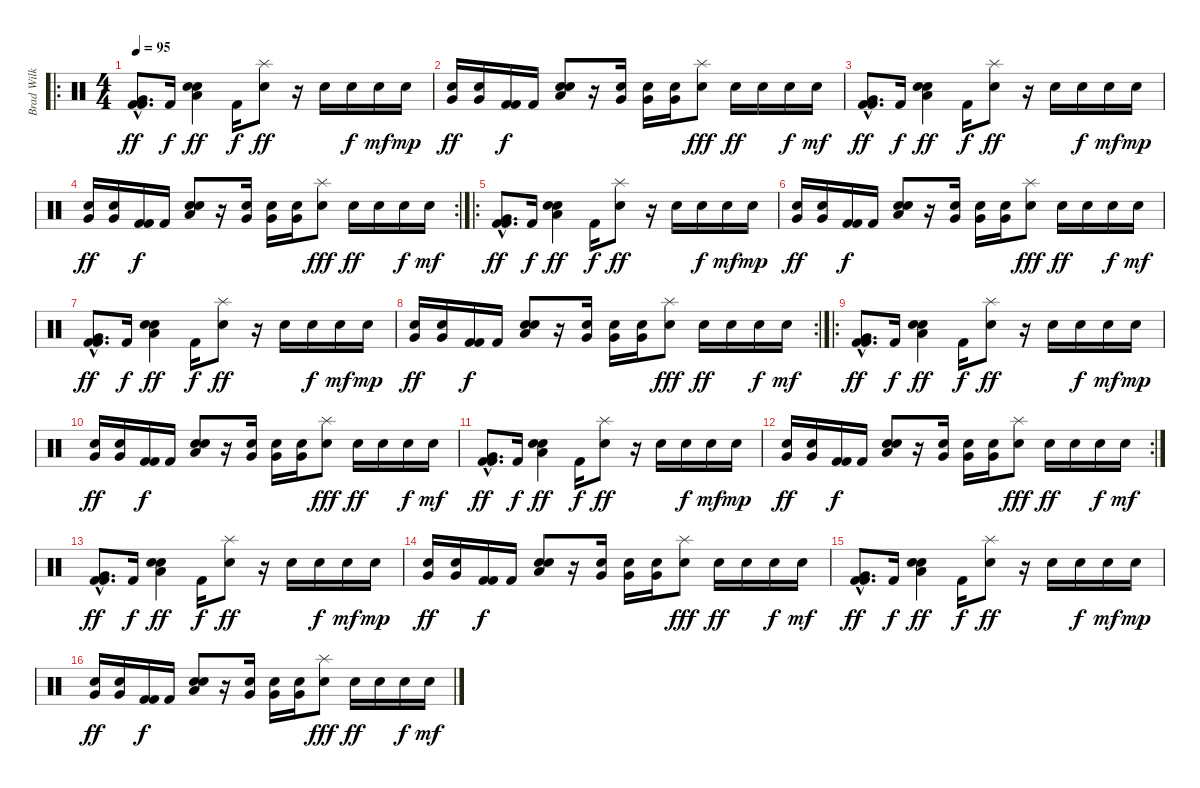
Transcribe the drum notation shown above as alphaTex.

\track ("Brad Wilk" "Brad Wilk") {instrument percussion}
\staff {score}
\articulation defaults
\ro
\ts (4 4)
\tempo 95
\clef neutral
\ks c
("Very Low Tom (hit)"{hac} "Kick (hit) 2"{hac} "Kick (hit) 2"{hac}).8{d dy ff} "Kick (hit) 2".16{dy f} ("Low Tom (hit)" "Snare (hit) 2" "Snare (hit) 2").4{dy ff} "Kick (hit) 2".16{dy f} ("Splash (hit)" "Snare (hit) 2").8{dy ff} r.16 "Snare (hit) 2".16 "Snare (hit) 2".16{dy f} "Snare (hit) 2".16{dy mf} "Snare (hit) 2".16{dy mp} |
("Very Low Tom (hit)" "Snare (hit) 2").16{dy ff} ("Very Low Tom (hit)" "Snare (hit) 2").16 ("Kick (hit) 2" "Kick (hit) 2").16{dy f} "Kick (hit) 2".16 ("Low Tom (hit)" "Snare (hit) 2" "Snare (hit) 2").8 r.16 ("Very Low Tom (hit)" "Snare (hit) 2").16 ("Very Low Tom (hit)" "Snare (hit) 2").16 ("Very Low Tom (hit)" "Snare (hit) 2").16 ("Splash (hit)" "Snare (hit) 2").8{dy fff} "Snare (hit) 2".16{dy ff} "Snare (hit) 2".16 "Snare (hit) 2".16{dy f} "Snare (hit) 2".16{dy mf} |
("Very Low Tom (hit)"{hac} "Kick (hit) 2"{hac} "Kick (hit) 2"{hac}).8{d dy ff} "Kick (hit) 2".16{dy f} ("Low Tom (hit)" "Snare (hit) 2" "Snare (hit) 2").4{dy ff} "Kick (hit) 2".16{dy f} ("Splash (hit)" "Snare (hit) 2").8{dy ff} r.16 "Snare (hit) 2".16 "Snare (hit) 2".16{dy f} "Snare (hit) 2".16{dy mf} "Snare (hit) 2".16{dy mp} |
\rc 2
("Very Low Tom (hit)" "Snare (hit) 2").16{dy ff} ("Very Low Tom (hit)" "Snare (hit) 2").16 ("Kick (hit) 2" "Kick (hit) 2").16{dy f} "Kick (hit) 2".16 ("Low Tom (hit)" "Snare (hit) 2" "Snare (hit) 2").8 r.16 ("Very Low Tom (hit)" "Snare (hit) 2").16 ("Very Low Tom (hit)" "Snare (hit) 2").16 ("Very Low Tom (hit)" "Snare (hit) 2").16 ("Splash (hit)" "Snare (hit) 2").8{dy fff} "Snare (hit) 2".16{dy ff} "Snare (hit) 2".16 "Snare (hit) 2".16{dy f} "Snare (hit) 2".16{dy mf} |
\ro
("Very Low Tom (hit)"{hac} "Kick (hit) 2"{hac} "Kick (hit) 2"{hac}).8{d dy ff} "Kick (hit) 2".16{dy f} ("Low Tom (hit)" "Snare (hit) 2" "Snare (hit) 2").4{dy ff} "Kick (hit) 2".16{dy f} ("Splash (hit)" "Snare (hit) 2").8{dy ff} r.16 "Snare (hit) 2".16 "Snare (hit) 2".16{dy f} "Snare (hit) 2".16{dy mf} "Snare (hit) 2".16{dy mp} |
("Very Low Tom (hit)" "Snare (hit) 2").16{dy ff} ("Very Low Tom (hit)" "Snare (hit) 2").16 ("Kick (hit) 2" "Kick (hit) 2").16{dy f} "Kick (hit) 2".16 ("Low Tom (hit)" "Snare (hit) 2" "Snare (hit) 2").8 r.16 ("Very Low Tom (hit)" "Snare (hit) 2").16 ("Very Low Tom (hit)" "Snare (hit) 2").16 ("Very Low Tom (hit)" "Snare (hit) 2").16 ("Splash (hit)" "Snare (hit) 2").8{dy fff} "Snare (hit) 2".16{dy ff} "Snare (hit) 2".16 "Snare (hit) 2".16{dy f} "Snare (hit) 2".16{dy mf} |
("Very Low Tom (hit)"{hac} "Kick (hit) 2"{hac} "Kick (hit) 2"{hac}).8{d dy ff} "Kick (hit) 2".16{dy f} ("Low Tom (hit)" "Snare (hit) 2" "Snare (hit) 2").4{dy ff} "Kick (hit) 2".16{dy f} ("Splash (hit)" "Snare (hit) 2").8{dy ff} r.16 "Snare (hit) 2".16 "Snare (hit) 2".16{dy f} "Snare (hit) 2".16{dy mf} "Snare (hit) 2".16{dy mp} |
\rc 2
("Very Low Tom (hit)" "Snare (hit) 2").16{dy ff} ("Very Low Tom (hit)" "Snare (hit) 2").16 ("Kick (hit) 2" "Kick (hit) 2").16{dy f} "Kick (hit) 2".16 ("Low Tom (hit)" "Snare (hit) 2" "Snare (hit) 2").8 r.16 ("Very Low Tom (hit)" "Snare (hit) 2").16 ("Very Low Tom (hit)" "Snare (hit) 2").16 ("Very Low Tom (hit)" "Snare (hit) 2").16 ("Splash (hit)" "Snare (hit) 2").8{dy fff} "Snare (hit) 2".16{dy ff} "Snare (hit) 2".16 "Snare (hit) 2".16{dy f} "Snare (hit) 2".16{dy mf} |
\ro
("Very Low Tom (hit)"{hac} "Kick (hit) 2"{hac} "Kick (hit) 2"{hac}).8{d dy ff} "Kick (hit) 2".16{dy f} ("Low Tom (hit)" "Snare (hit) 2" "Snare (hit) 2").4{dy ff} "Kick (hit) 2".16{dy f} ("Splash (hit)" "Snare (hit) 2").8{dy ff} r.16 "Snare (hit) 2".16 "Snare (hit) 2".16{dy f} "Snare (hit) 2".16{dy mf} "Snare (hit) 2".16{dy mp} |
("Very Low Tom (hit)" "Snare (hit) 2").16{dy ff} ("Very Low Tom (hit)" "Snare (hit) 2").16 ("Kick (hit) 2" "Kick (hit) 2").16{dy f} "Kick (hit) 2".16 ("Low Tom (hit)" "Snare (hit) 2" "Snare (hit) 2").8 r.16 ("Very Low Tom (hit)" "Snare (hit) 2").16 ("Very Low Tom (hit)" "Snare (hit) 2").16 ("Very Low Tom (hit)" "Snare (hit) 2").16 ("Splash (hit)" "Snare (hit) 2").8{dy fff} "Snare (hit) 2".16{dy ff} "Snare (hit) 2".16 "Snare (hit) 2".16{dy f} "Snare (hit) 2".16{dy mf} |
("Very Low Tom (hit)"{hac} "Kick (hit) 2"{hac} "Kick (hit) 2"{hac}).8{d dy ff} "Kick (hit) 2".16{dy f} ("Low Tom (hit)" "Snare (hit) 2" "Snare (hit) 2").4{dy ff} "Kick (hit) 2".16{dy f} ("Splash (hit)" "Snare (hit) 2").8{dy ff} r.16 "Snare (hit) 2".16 "Snare (hit) 2".16{dy f} "Snare (hit) 2".16{dy mf} "Snare (hit) 2".16{dy mp} |
\rc 2
("Very Low Tom (hit)" "Snare (hit) 2").16{dy ff} ("Very Low Tom (hit)" "Snare (hit) 2").16 ("Kick (hit) 2" "Kick (hit) 2").16{dy f} "Kick (hit) 2".16 ("Low Tom (hit)" "Snare (hit) 2" "Snare (hit) 2").8 r.16 ("Very Low Tom (hit)" "Snare (hit) 2").16 ("Very Low Tom (hit)" "Snare (hit) 2").16 ("Very Low Tom (hit)" "Snare (hit) 2").16 ("Splash (hit)" "Snare (hit) 2").8{dy fff} "Snare (hit) 2".16{dy ff} "Snare (hit) 2".16 "Snare (hit) 2".16{dy f} "Snare (hit) 2".16{dy mf} |
("Very Low Tom (hit)"{hac} "Kick (hit) 2"{hac} "Kick (hit) 2"{hac}).8{d dy ff} "Kick (hit) 2".16{dy f} ("Low Tom (hit)" "Snare (hit) 2" "Snare (hit) 2").4{dy ff} "Kick (hit) 2".16{dy f} ("Splash (hit)" "Snare (hit) 2").8{dy ff} r.16 "Snare (hit) 2".16 "Snare (hit) 2".16{dy f} "Snare (hit) 2".16{dy mf} "Snare (hit) 2".16{dy mp} |
("Very Low Tom (hit)" "Snare (hit) 2").16{dy ff} ("Very Low Tom (hit)" "Snare (hit) 2").16 ("Kick (hit) 2" "Kick (hit) 2").16{dy f} "Kick (hit) 2".16 ("Low Tom (hit)" "Snare (hit) 2" "Snare (hit) 2").8 r.16 ("Very Low Tom (hit)" "Snare (hit) 2").16 ("Very Low Tom (hit)" "Snare (hit) 2").16 ("Very Low Tom (hit)" "Snare (hit) 2").16 ("Splash (hit)" "Snare (hit) 2").8{dy fff} "Snare (hit) 2".16{dy ff} "Snare (hit) 2".16 "Snare (hit) 2".16{dy f} "Snare (hit) 2".16{dy mf} |
("Very Low Tom (hit)"{hac} "Kick (hit) 2"{hac} "Kick (hit) 2"{hac}).8{d dy ff} "Kick (hit) 2".16{dy f} ("Low Tom (hit)" "Snare (hit) 2" "Snare (hit) 2").4{dy ff} "Kick (hit) 2".16{dy f} ("Splash (hit)" "Snare (hit) 2").8{dy ff} r.16 "Snare (hit) 2".16 "Snare (hit) 2".16{dy f} "Snare (hit) 2".16{dy mf} "Snare (hit) 2".16{dy mp} |
("Very Low Tom (hit)" "Snare (hit) 2").16{dy ff} ("Very Low Tom (hit)" "Snare (hit) 2").16 ("Kick (hit) 2" "Kick (hit) 2").16{dy f} "Kick (hit) 2".16 ("Low Tom (hit)" "Snare (hit) 2" "Snare (hit) 2").8 r.16 ("Very Low Tom (hit)" "Snare (hit) 2").16 ("Very Low Tom (hit)" "Snare (hit) 2").16 ("Very Low Tom (hit)" "Snare (hit) 2").16 ("Splash (hit)" "Snare (hit) 2").8{dy fff} "Snare (hit) 2".16{dy ff} "Snare (hit) 2".16 "Snare (hit) 2".16{dy f} "Snare (hit) 2".16{dy mf}
